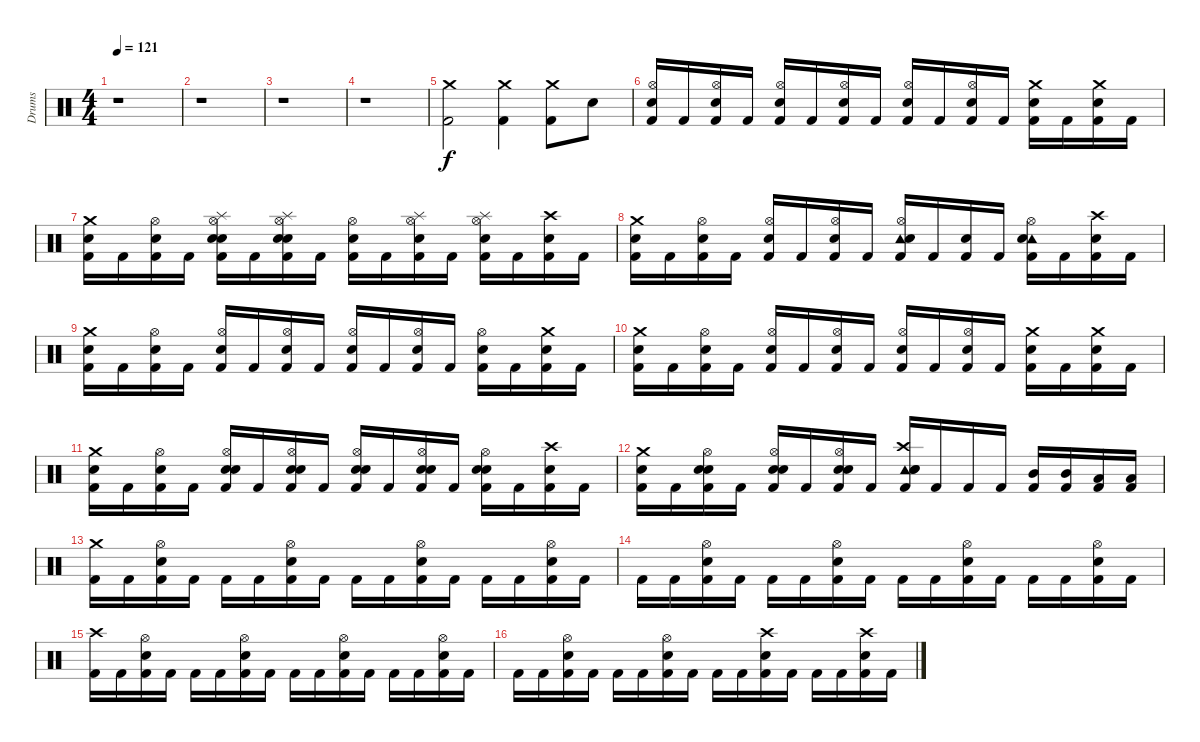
\track ("Drums" "Drums") {instrument percussion}
\staff {score}
\articulation defaults
\ts (4 4)
\tempo 121
\clef neutral
\ks c
r.1{dy f} |
r.1 |
r.1 |
r.1 |
("Crash medium (hit)" "Kick (hit) 2").2 ("Crash medium (hit)" "Kick (hit) 2").4 ("Crash medium (hit)" "Kick (hit) 2").8 "Electric Snare (hit)".8 |
("Hi-Hat (open)" "Snare (hit) 2" "Kick (hit) 2").16 "Kick (hit) 2".16 ("Hi-Hat (open)" "Snare (hit) 2" "Kick (hit) 2").16 "Kick (hit) 2".16 ("Hi-Hat (open)" "Snare (hit) 2" "Kick (hit) 2").16 "Kick (hit) 2".16 ("Hi-Hat (open)" "Snare (hit) 2" "Kick (hit) 2").16 "Kick (hit) 2".16 ("Hi-Hat (open)" "Snare (hit) 2" "Kick (hit) 2").16 "Kick (hit) 2".16 ("Hi-Hat (open)" "Snare (hit) 2" "Kick (hit) 2").16 "Kick (hit) 2".16 ("Crash medium (hit)" "Snare (hit) 2" "Kick (hit) 2").16 "Kick (hit) 2".16 ("Crash medium (hit)" "Snare (hit) 2" "Kick (hit) 2").16 "Kick (hit) 2".16 |
("Crash medium (hit)" "Snare (hit) 2" "Kick (hit) 2").16 "Kick (hit) 2".16 ("Hi-Hat (open)" "Snare (hit) 2" "Kick (hit) 2").16 "Kick (hit) 2".16 ("Hi-Hat (open)" "Splash (hit)" "Electric Snare (hit)" "Snare (hit) 2" "Kick (hit) 2").16 "Kick (hit) 2".16 ("Hi-Hat (open)" "Splash (hit)" "Electric Snare (hit)" "Snare (hit) 2" "Kick (hit) 2").16 "Kick (hit) 2".16 ("Hi-Hat (open)" "Snare (hit) 2" "Kick (hit) 2").16 "Kick (hit) 2".16 ("Hi-Hat (open)" "Splash (hit)" "Snare (hit) 2" "Kick (hit) 2").16 "Kick (hit) 2".16 ("Hi-Hat (open)" "Splash (hit)" "Snare (hit) 2" "Kick (hit) 2").16 "Kick (hit) 2".16 ("Crash high (hit)" "Snare (hit) 2" "Kick (hit) 2").16 "Kick (hit) 2".16 |
("Crash medium (hit)" "Snare (hit) 2" "Kick (hit) 2").16 "Kick (hit) 2".16 ("Hi-Hat (open)" "Snare (hit) 2" "Kick (hit) 2").16 "Kick (hit) 2".16 ("Hi-Hat (open)" "Snare (hit) 2" "Kick (hit) 2").16 "Kick (hit) 2".16 ("Hi-Hat (open)" "Snare (hit) 2" "Kick (hit) 2").16 "Kick (hit) 2".16 ("Hi-Hat (open)" "Tambourine (hit)" "Snare (hit) 2" "Kick (hit) 2").16 "Kick (hit) 2".16 ("Snare (hit) 2" "Kick (hit) 2").16 "Kick (hit) 2".16 ("Hi-Hat (open)" "Tambourine (hit)" "Snare (hit) 2" "Kick (hit) 2").16 "Kick (hit) 2".16 ("Crash high (hit)" "Snare (hit) 2" "Kick (hit) 2").16 "Kick (hit) 2".16 |
("Crash medium (hit)" "Snare (hit) 2" "Kick (hit) 2").16 "Kick (hit) 2".16 ("Hi-Hat (open)" "Snare (hit) 2" "Kick (hit) 2").16 "Kick (hit) 2".16 ("Hi-Hat (open)" "Snare (hit) 2" "Kick (hit) 2").16 "Kick (hit) 2".16 ("Hi-Hat (open)" "Snare (hit) 2" "Kick (hit) 2").16 "Kick (hit) 2".16 ("Hi-Hat (open)" "Snare (hit) 2" "Kick (hit) 2").16 "Kick (hit) 2".16 ("Hi-Hat (open)" "Snare (hit) 2" "Kick (hit) 2").16 "Kick (hit) 2".16 ("Hi-Hat (open)" "Snare (hit) 2" "Kick (hit) 2").16 "Kick (hit) 2".16 ("Crash medium (hit)" "Snare (hit) 2" "Kick (hit) 2").16 "Kick (hit) 2".16 |
("Crash medium (hit)" "Snare (hit) 2" "Kick (hit) 2").16 "Kick (hit) 2".16 ("Hi-Hat (open)" "Snare (hit) 2" "Kick (hit) 2").16 "Kick (hit) 2".16 ("Hi-Hat (open)" "Snare (hit) 2" "Kick (hit) 2").16 "Kick (hit) 2".16 ("Hi-Hat (open)" "Snare (hit) 2" "Kick (hit) 2").16 "Kick (hit) 2".16 ("Hi-Hat (open)" "Snare (hit) 2" "Kick (hit) 2").16 "Kick (hit) 2".16 ("Hi-Hat (open)" "Snare (hit) 2" "Kick (hit) 2").16 "Kick (hit) 2".16 ("Crash medium (hit)" "Snare (hit) 2" "Kick (hit) 2").16 "Kick (hit) 2".16 ("Crash medium (hit)" "Snare (hit) 2" "Kick (hit) 2").16 "Kick (hit) 2".16 |
("Crash medium (hit)" "Snare (hit) 2" "Kick (hit) 2").16 "Kick (hit) 2".16 ("Hi-Hat (open)" "Snare (hit) 2" "Kick (hit) 2").16 "Kick (hit) 2".16 ("Hi-Hat (open)" "Electric Snare (hit)" "Snare (hit) 2" "Kick (hit) 2").16 "Kick (hit) 2".16 ("Hi-Hat (open)" "Electric Snare (hit)" "Snare (hit) 2" "Kick (hit) 2").16 "Kick (hit) 2".16 ("Hi-Hat (open)" "Electric Snare (hit)" "Snare (hit) 2" "Kick (hit) 2").16 "Kick (hit) 2".16 ("Hi-Hat (open)" "Electric Snare (hit)" "Snare (hit) 2" "Kick (hit) 2").16 "Kick (hit) 2".16 ("Hi-Hat (open)" "Electric Snare (hit)" "Snare (hit) 2" "Kick (hit) 2").16 "Kick (hit) 2".16 ("Crash high (hit)" "Snare (hit) 2" "Kick (hit) 2").16 "Kick (hit) 2".16 |
("Crash medium (hit)" "Snare (hit) 2" "Kick (hit) 2").16 "Kick (hit) 2".16 ("Hi-Hat (open)" "Electric Snare (hit)" "Snare (hit) 2" "Kick (hit) 2").16 "Kick (hit) 2".16 ("Hi-Hat (open)" "Electric Snare (hit)" "Snare (hit) 2" "Kick (hit) 2").16 "Kick (hit) 2".16 ("Hi-Hat (open)" "Electric Snare (hit)" "Snare (hit) 2" "Kick (hit) 2").16 "Kick (hit) 2".16 ("Crash high (hit)" "Tambourine (hit)" "Electric Snare (hit)" "Snare (hit) 2" "Kick (hit) 2").16 "Kick (hit) 2".16 "Kick (hit) 2".16 "Kick (hit) 2".16 ("Mid Tom (hit)" "Kick (hit) 2").16 ("Mid Tom (hit)" "Kick (hit) 2").16 ("Low Tom (hit)" "Kick (hit) 2").16 ("Low Tom (hit)" "Kick (hit) 2").16 |
("Crash medium (hit)" "Kick (hit) 2").16 "Kick (hit) 2".16 ("Hi-Hat (open)" "Electric Snare (hit)" "Kick (hit) 2").16 "Kick (hit) 2".16 "Kick (hit) 2".16 "Kick (hit) 2".16 ("Hi-Hat (open)" "Electric Snare (hit)" "Kick (hit) 2").16 "Kick (hit) 2".16 "Kick (hit) 2".16 "Kick (hit) 2".16 ("Hi-Hat (open)" "Electric Snare (hit)" "Kick (hit) 2").16 "Kick (hit) 2".16 "Kick (hit) 2".16 "Kick (hit) 2".16 ("Hi-Hat (open)" "Electric Snare (hit)" "Kick (hit) 2").16 "Kick (hit) 2".16 |
"Kick (hit) 2".16 "Kick (hit) 2".16 ("Hi-Hat (open)" "Electric Snare (hit)" "Kick (hit) 2").16 "Kick (hit) 2".16 "Kick (hit) 2".16 "Kick (hit) 2".16 ("Hi-Hat (open)" "Electric Snare (hit)" "Kick (hit) 2").16 "Kick (hit) 2".16 "Kick (hit) 2".16 "Kick (hit) 2".16 ("Hi-Hat (open)" "Electric Snare (hit)" "Kick (hit) 2").16 "Kick (hit) 2".16 "Kick (hit) 2".16 "Kick (hit) 2".16 ("Hi-Hat (open)" "Electric Snare (hit)" "Kick (hit) 2").16 "Kick (hit) 2".16 |
("Crash high (hit)" "Kick (hit) 2").16 "Kick (hit) 2".16 ("Hi-Hat (open)" "Electric Snare (hit)" "Kick (hit) 2").16 "Kick (hit) 2".16 "Kick (hit) 2".16 "Kick (hit) 2".16 ("Hi-Hat (open)" "Electric Snare (hit)" "Kick (hit) 2").16 "Kick (hit) 2".16 "Kick (hit) 2".16 "Kick (hit) 2".16 ("Hi-Hat (open)" "Electric Snare (hit)" "Kick (hit) 2").16 "Kick (hit) 2".16 "Kick (hit) 2".16 "Kick (hit) 2".16 ("Hi-Hat (open)" "Electric Snare (hit)" "Kick (hit) 2").16 "Kick (hit) 2".16 |
"Kick (hit) 2".16 "Kick (hit) 2".16 ("Hi-Hat (open)" "Electric Snare (hit)" "Kick (hit) 2").16 "Kick (hit) 2".16 "Kick (hit) 2".16 "Kick (hit) 2".16 ("Hi-Hat (open)" "Electric Snare (hit)" "Kick (hit) 2").16 "Kick (hit) 2".16 "Kick (hit) 2".16 "Kick (hit) 2".16 ("Crash high (hit)" "Electric Snare (hit)" "Kick (hit) 2").16 "Kick (hit) 2".16 "Kick (hit) 2".16 "Kick (hit) 2".16 ("Crash high (hit)" "Electric Snare (hit)" "Kick (hit) 2").16 "Kick (hit) 2".16
